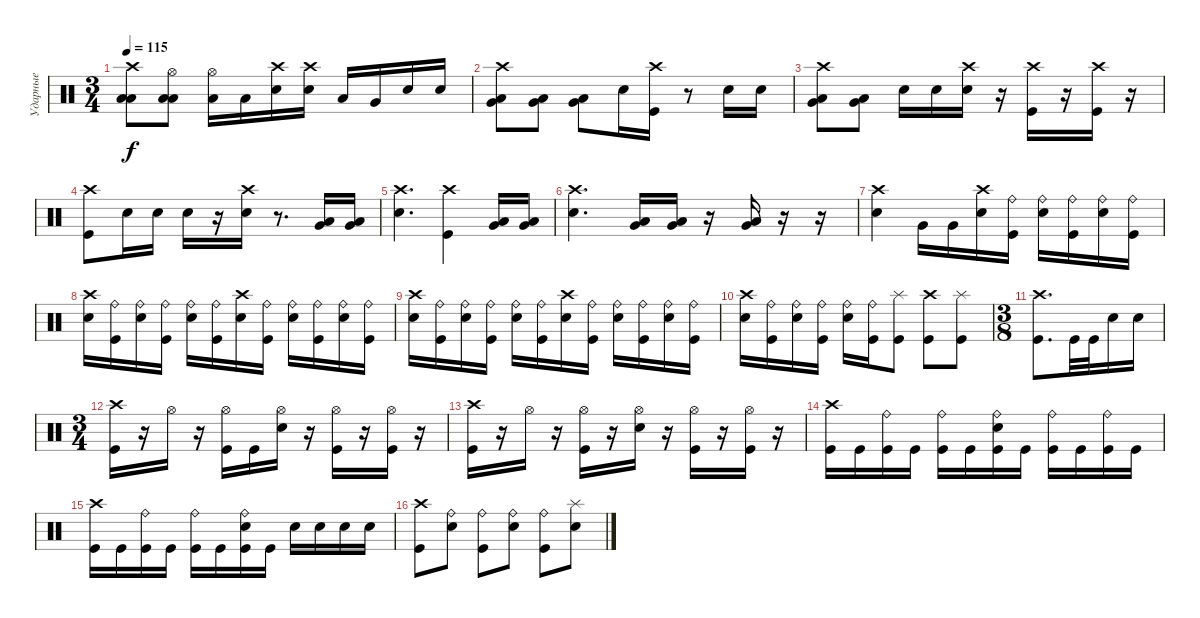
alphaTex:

\track ("Ударные" "Ударные") {instrument percussion}
\staff {score}
\articulation defaults
\ts (3 4)
\tempo 115
\clef neutral
\ks c
("Crash high (hit)" "Low Tom (hit)" "Low Floor Tom (hit)").8{dy f} ("Hi-Hat (open)" "Low Tom (hit)" "Low Floor Tom (hit)").8 ("Hi-Hat (open)" "Low Floor Tom (hit)").16 "Low Floor Tom (hit)".16 ("Crash high (hit)" "Snare (hit) 2").16 ("Crash high (hit)" "Snare (hit) 2").16 "Low Tom (hit)".16 "Very Low Tom (hit)".16 "Snare (hit) 2".16 "Snare (hit) 2".16 |
("Crash high (hit)" "Low Tom (hit)" "Very Low Tom (hit)").8 ("Low Tom (hit)" "Very Low Tom (hit)").8 ("Very Low Tom (hit)" "Low Floor Tom (hit)").8 "Snare (hit) 2".16 ("Crash high (hit)" "Kick (hit)").16 r.8 "Snare (hit) 2".16 "Snare (hit) 2".16 |
("Crash high (hit)" "Very Low Tom (hit)" "Low Floor Tom (hit)").8 ("Very Low Tom (hit)" "Low Floor Tom (hit)").8 "Snare (hit) 2".16 "Snare (hit) 2".16 ("Crash high (hit)" "Snare (hit) 2").16 r.16 ("Crash high (hit)" "Kick (hit)").16 r.16 ("Crash high (hit)" "Kick (hit)").16 r.16 |
("Crash high (hit)" "Kick (hit)").8 "Snare (hit) 2".16 "Snare (hit) 2".16 "Snare (hit) 2".16 r.16 ("Crash high (hit)" "Snare (hit) 2").16 r.8{d} ("Very Low Tom (hit)" "Low Floor Tom (hit)").16 ("Very Low Tom (hit)" "Low Floor Tom (hit)").16 |
("Crash high (hit)" "Snare (hit) 2").4{d} ("Crash high (hit)" "Kick (hit)").4 ("Very Low Tom (hit)" "Low Floor Tom (hit)").16 ("Very Low Tom (hit)" "Low Floor Tom (hit)").16 |
("Crash high (hit)" "Snare (hit) 2").4{d} ("Very Low Tom (hit)" "Low Floor Tom (hit)").16 ("Very Low Tom (hit)" "Low Floor Tom (hit)").16 r.16 ("Very Low Tom (hit)" "Low Floor Tom (hit)").16 r.16 r.16 |
("Crash high (hit)" "Snare (hit) 2").4 "Very Low Tom (hit)".16 "Very Low Tom (hit)".16 ("Crash high (hit)" "Snare (hit) 2").16 ("Ride (bell)" "Kick (hit)").16 ("Ride (bell)" "Snare (hit) 2").16 ("Ride (bell)" "Kick (hit)").16 ("Ride (bell)" "Snare (hit) 2").16 ("Ride (bell)" "Kick (hit)").16 |
("Crash high (hit)" "Snare (hit) 2").16 ("Ride (bell)" "Kick (hit)").16 ("Ride (bell)" "Snare (hit) 2").16 ("Ride (bell)" "Kick (hit)").16 ("Ride (bell)" "Snare (hit) 2").16 ("Ride (bell)" "Kick (hit)").16 ("Crash high (hit)" "Snare (hit) 2").16 ("Ride (bell)" "Kick (hit)").16 ("Ride (bell)" "Snare (hit) 2").16 ("Ride (bell)" "Kick (hit)").16 ("Ride (bell)" "Snare (hit) 2").16 ("Ride (bell)" "Kick (hit)").16 |
("Crash high (hit)" "Snare (hit) 2").16 ("Ride (bell)" "Kick (hit)").16 ("Ride (bell)" "Snare (hit) 2").16 ("Ride (bell)" "Kick (hit)").16 ("Ride (bell)" "Snare (hit) 2").16 ("Ride (bell)" "Kick (hit)").16 ("Crash high (hit)" "Snare (hit) 2").16 ("Ride (bell)" "Kick (hit)").16 ("Ride (bell)" "Snare (hit) 2").16 ("Ride (bell)" "Kick (hit)").16 ("Ride (bell)" "Snare (hit) 2").16 ("Ride (bell)" "Kick (hit)").16 |
("Crash high (hit)" "Snare (hit) 2").16 ("Ride (bell)" "Kick (hit)").16 ("Ride (bell)" "Snare (hit) 2").16 ("Ride (bell)" "Kick (hit)").16 ("Ride (bell)" "Snare (hit) 2").16 ("Ride (bell)" "Kick (hit)").16 ("Splash (hit)" "Kick (hit)").8 ("Crash high (hit)" "Kick (hit)").8 ("Splash (hit)" "Kick (hit)").8 |
\ts (3 8)
("Crash high (hit)" "Kick (hit)").8{d} "Kick (hit)".32 "Kick (hit)".32 "Snare (hit) 2".16 "Snare (hit) 2".16 |
\ts (3 4)
("Crash high (hit)" "Kick (hit)").16 r.16 "Hi-Hat (open)".16 r.16 ("Hi-Hat (open)" "Kick (hit)").16 "Kick (hit)".16 ("Hi-Hat (open)" "Snare (hit) 2").16 r.16 ("Hi-Hat (open)" "Kick (hit)").16 r.16 ("Hi-Hat (open)" "Kick (hit)").16 r.16 |
("Crash high (hit)" "Kick (hit)").16 r.16 "Hi-Hat (open)".16 r.16 ("Hi-Hat (open)" "Kick (hit)").16 r.16 ("Hi-Hat (open)" "Snare (hit) 2").16 r.16 ("Hi-Hat (open)" "Kick (hit)").16 r.16 ("Hi-Hat (open)" "Kick (hit)").16 r.16 |
("Crash high (hit)" "Kick (hit)").16 "Kick (hit)".16 ("Ride (bell)" "Kick (hit)").16 "Kick (hit)".16 ("Ride (bell)" "Kick (hit)").16 "Kick (hit)".16 ("Ride (bell)" "Snare (hit) 2" "Kick (hit)").16 "Kick (hit)".16 ("Ride (bell)" "Kick (hit)").16 "Kick (hit)".16 ("Ride (bell)" "Kick (hit)").16 "Kick (hit)".16 |
("Crash high (hit)" "Kick (hit)").16 "Kick (hit)".16 ("Ride (bell)" "Kick (hit)").16 "Kick (hit)".16 ("Ride (bell)" "Kick (hit)").16 "Kick (hit)".16 ("Ride (bell)" "Snare (hit) 2" "Kick (hit)").16 "Kick (hit)".16 "Snare (hit) 2".16 "Snare (hit) 2".16 "Snare (hit) 2".16 "Snare (hit) 2".16 |
("Crash high (hit)" "Kick (hit)").8 ("Ride (bell)" "Snare (hit) 2").8 ("Ride (bell)" "Kick (hit)").8 ("Ride (bell)" "Snare (hit) 2").8 ("Ride (bell)" "Kick (hit)").8 ("Splash (hit)" "Snare (hit) 2").8
